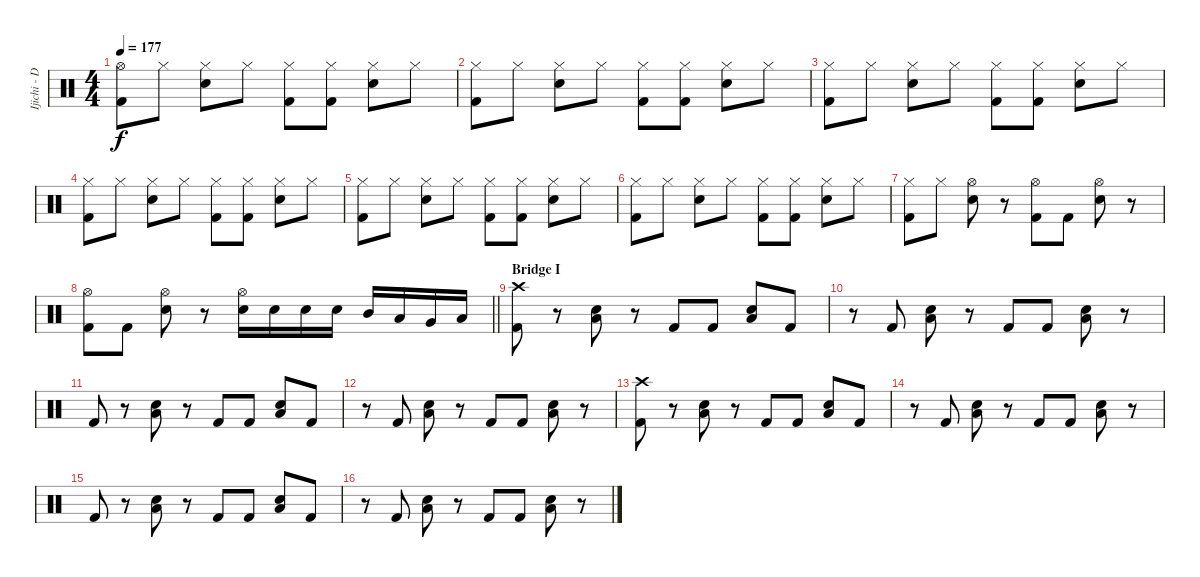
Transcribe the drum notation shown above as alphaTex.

\track ("Ijichi - Drums" "Ijichi - D") {instrument percussion}
\staff {score}
\articulation defaults
\ts (4 4)
\tempo 177
\clef neutral
\ks c
("Hi-Hat (open)" "Kick (hit) 2").8{dy f} "Hi-Hat (closed)".8 ("Hi-Hat (closed)" "Snare (hit) 2").8 "Hi-Hat (closed)".8 ("Hi-Hat (closed)" "Kick (hit) 2").8 ("Hi-Hat (closed)" "Kick (hit) 2").8 ("Hi-Hat (closed)" "Snare (hit) 2").8 "Hi-Hat (closed)".8 |
("Hi-Hat (closed)" "Kick (hit) 2").8 "Hi-Hat (closed)".8 ("Hi-Hat (closed)" "Snare (hit) 2").8 "Hi-Hat (closed)".8 ("Hi-Hat (closed)" "Kick (hit) 2").8 ("Hi-Hat (closed)" "Kick (hit) 2").8 ("Hi-Hat (closed)" "Snare (hit) 2").8 "Hi-Hat (closed)".8 |
("Hi-Hat (closed)" "Kick (hit) 2").8 "Hi-Hat (closed)".8 ("Hi-Hat (closed)" "Snare (hit) 2").8 "Hi-Hat (closed)".8 ("Hi-Hat (closed)" "Kick (hit) 2").8 ("Hi-Hat (closed)" "Kick (hit) 2").8 ("Hi-Hat (closed)" "Snare (hit) 2").8 "Hi-Hat (closed)".8 |
("Hi-Hat (closed)" "Kick (hit) 2").8 "Hi-Hat (closed)".8 ("Hi-Hat (closed)" "Snare (hit) 2").8 "Hi-Hat (closed)".8 ("Hi-Hat (closed)" "Kick (hit) 2").8 ("Hi-Hat (closed)" "Kick (hit) 2").8 ("Hi-Hat (closed)" "Snare (hit) 2").8 "Hi-Hat (closed)".8 |
("Hi-Hat (closed)" "Kick (hit) 2").8 "Hi-Hat (closed)".8 ("Hi-Hat (closed)" "Snare (hit) 2").8 "Hi-Hat (closed)".8 ("Hi-Hat (closed)" "Kick (hit) 2").8 ("Hi-Hat (closed)" "Kick (hit) 2").8 ("Hi-Hat (closed)" "Snare (hit) 2").8 "Hi-Hat (closed)".8 |
("Hi-Hat (closed)" "Kick (hit) 2").8 "Hi-Hat (closed)".8 ("Hi-Hat (closed)" "Snare (hit) 2").8 "Hi-Hat (closed)".8 ("Hi-Hat (closed)" "Kick (hit) 2").8 ("Hi-Hat (closed)" "Kick (hit) 2").8 ("Hi-Hat (closed)" "Snare (hit) 2").8 "Hi-Hat (closed)".8 |
("Hi-Hat (closed)" "Kick (hit) 2").8 "Hi-Hat (closed)".8 ("Hi-Hat (open)" "Snare (hit) 2").8 r.8 ("Hi-Hat (open)" "Kick (hit) 2").8 "Kick (hit) 2".8 ("Hi-Hat (open)" "Snare (hit) 2").8 r.8 |
\barLineRight lightlight
("Hi-Hat (open)" "Kick (hit) 2").8 "Kick (hit) 2".8 ("Hi-Hat (open)" "Snare (hit) 2").8 r.8 ("Hi-Hat (open)" "Snare (hit) 2").16 "Snare (hit) 2".16 "Snare (hit) 2".16 "Snare (hit) 2".16 "Mid Tom (hit)".16 "Low Tom (hit)".16 "Very Low Tom (hit)".16 "Low Floor Tom (hit)".16 |
\section ("" "Bridge I")
("Crash high (hit)" "Kick (hit) 2").8 r.8 ("Snare (hit) 2" "Low Floor Tom (hit)").8 r.8 "Kick (hit) 2".8 "Kick (hit) 2".8 ("Snare (hit) 2" "Low Floor Tom (hit)").8 "Kick (hit) 2".8 |
r.8 "Kick (hit) 2".8 ("Snare (hit) 2" "Low Floor Tom (hit)").8 r.8 "Kick (hit) 2".8 "Kick (hit) 2".8 ("Snare (hit) 2" "Low Floor Tom (hit)").8 r.8 |
"Kick (hit) 2".8 r.8 ("Snare (hit) 2" "Low Floor Tom (hit)").8 r.8 "Kick (hit) 2".8 "Kick (hit) 2".8 ("Snare (hit) 2" "Low Floor Tom (hit)").8 "Kick (hit) 2".8 |
r.8 "Kick (hit) 2".8 ("Snare (hit) 2" "Low Floor Tom (hit)").8 r.8 "Kick (hit) 2".8 "Kick (hit) 2".8 ("Snare (hit) 2" "Low Floor Tom (hit)").8 r.8 |
("Crash high (hit)" "Kick (hit) 2").8 r.8 ("Snare (hit) 2" "Low Floor Tom (hit)").8 r.8 "Kick (hit) 2".8 "Kick (hit) 2".8 ("Snare (hit) 2" "Low Floor Tom (hit)").8 "Kick (hit) 2".8 |
r.8 "Kick (hit) 2".8 ("Snare (hit) 2" "Low Floor Tom (hit)").8 r.8 "Kick (hit) 2".8 "Kick (hit) 2".8 ("Snare (hit) 2" "Low Floor Tom (hit)").8 r.8 |
"Kick (hit) 2".8 r.8 ("Snare (hit) 2" "Low Floor Tom (hit)").8 r.8 "Kick (hit) 2".8 "Kick (hit) 2".8 ("Snare (hit) 2" "Low Floor Tom (hit)").8 "Kick (hit) 2".8 |
r.8 "Kick (hit) 2".8 ("Snare (hit) 2" "Low Floor Tom (hit)").8 r.8 "Kick (hit) 2".8 "Kick (hit) 2".8 ("Snare (hit) 2" "Low Floor Tom (hit)").8 r.8
